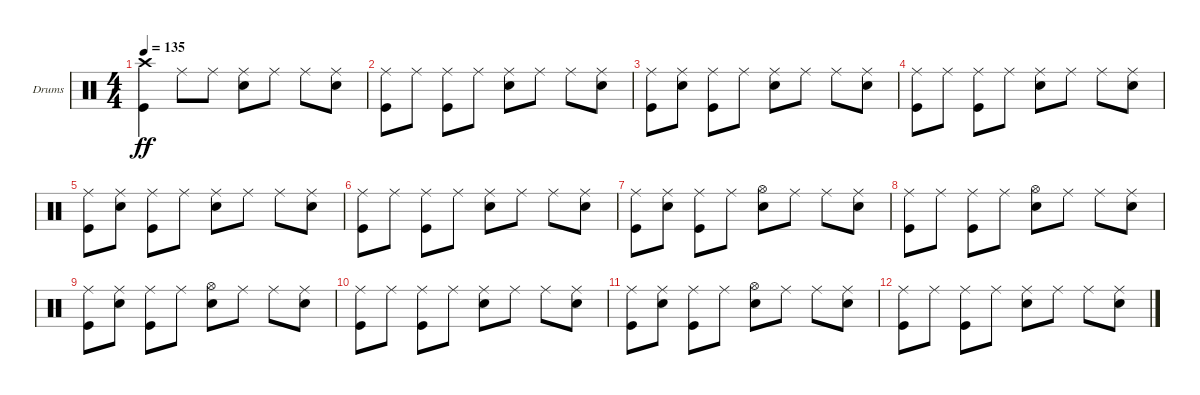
\defaultSystemsLayout 4
\bracketExtendMode groupsimilarinstruments
\firstSystemTrackNameOrientation horizontal
\otherSystemsTrackNameOrientation horizontal
\track ("Drumkit" "Drums") {instrument percussion}
\staff {score}
\articulation defaults
\ts (4 4)
\tempo 135
\clef neutral
\scale
0.333333
\ks c
("Kick (hit)" "Crash high (hit)").4{dy ff} "Ride (middle)".8 "Ride (middle)".8 ("Ride (middle)" "Snare (hit) 2").8 "Ride (middle)".8 "Ride (middle)".8 ("Ride (middle)" "Snare (hit) 2").8 |
\scale
0.333333 ("Kick (hit)" "Ride (middle)").8 "Ride (middle)".8 ("Ride (middle)" "Kick (hit)").8 "Ride (middle)".8 ("Ride (middle)" "Snare (hit) 2").8 "Ride (middle)".8 "Ride (middle)".8 ("Ride (middle)" "Snare (hit) 2").8 |
\scale
0.333333 ("Kick (hit)" "Ride (middle)").8 ("Ride (middle)" "Snare (hit) 2").8 ("Ride (middle)" "Kick (hit)").8 "Ride (middle)".8 ("Ride (middle)" "Snare (hit) 2").8 "Ride (middle)".8 "Ride (middle)".8 ("Ride (middle)" "Snare (hit) 2").8 |
\scale
0.333333 ("Kick (hit)" "Ride (middle)").8 "Ride (middle)".8 ("Ride (middle)" "Kick (hit)").8 "Ride (middle)".8 ("Ride (middle)" "Snare (hit) 2").8 "Ride (middle)".8 "Ride (middle)".8 ("Ride (middle)" "Snare (hit) 2").8 |
\scale
0.333333 ("Kick (hit)" "Ride (middle)").8 ("Ride (middle)" "Snare (hit) 2").8 ("Ride (middle)" "Kick (hit)").8 "Ride (middle)".8 ("Ride (middle)" "Snare (hit) 2").8 "Ride (middle)".8 "Ride (middle)".8 ("Ride (middle)" "Snare (hit) 2").8 |
\scale
0.333333 ("Kick (hit)" "Ride (middle)").8 "Ride (middle)".8 ("Ride (middle)" "Kick (hit)").8 "Ride (middle)".8 ("Ride (middle)" "Snare (hit) 2").8 "Ride (middle)".8 "Ride (middle)".8 ("Ride (middle)" "Snare (hit) 2").8 |
\scale
0.333333 ("Kick (hit)" "Ride (middle)").8 ("Ride (middle)" "Snare (hit) 2").8 ("Ride (middle)" "Kick (hit)").8 "Ride (middle)".8 ("Snare (hit) 2" "Hi-Hat (open)").8 "Ride (middle)".8 "Ride (middle)".8 ("Ride (middle)" "Snare (hit) 2").8 |
\scale
0.333333 ("Kick (hit)" "Ride (middle)").8 "Ride (middle)".8 ("Ride (middle)" "Kick (hit)").8 "Ride (middle)".8 ("Snare (hit) 2" "Hi-Hat (open)").8 "Ride (middle)".8 "Ride (middle)".8 ("Ride (middle)" "Snare (hit) 2").8 |
\scale
0.333333 ("Kick (hit)" "Ride (middle)").8 ("Ride (middle)" "Snare (hit) 2").8 ("Ride (middle)" "Kick (hit)").8 "Ride (middle)".8 ("Snare (hit) 2" "Hi-Hat (open)").8 "Ride (middle)".8 "Ride (middle)".8 ("Ride (middle)" "Snare (hit) 2").8 |
\scale
0.333333 ("Kick (hit)" "Ride (middle)").8 "Ride (middle)".8 ("Ride (middle)" "Kick (hit)").8 "Ride (middle)".8 ("Ride (middle)" "Snare (hit) 2").8 "Ride (middle)".8 "Ride (middle)".8 ("Ride (middle)" "Snare (hit) 2").8 |
\scale
0.333333 ("Kick (hit)" "Ride (middle)").8 ("Ride (middle)" "Snare (hit) 2").8 ("Ride (middle)" "Kick (hit)").8 "Ride (middle)".8 ("Snare (hit) 2" "Hi-Hat (open)").8 "Ride (middle)".8 "Ride (middle)".8 ("Ride (middle)" "Snare (hit) 2").8 |
\scale
0.333333 ("Kick (hit)" "Ride (middle)").8 "Ride (middle)".8 ("Ride (middle)" "Kick (hit)").8 "Ride (middle)".8 ("Ride (middle)" "Snare (hit) 2").8 "Ride (middle)".8 "Ride (middle)".8 ("Ride (middle)" "Snare (hit) 2").8 |
\scale
0.333333
